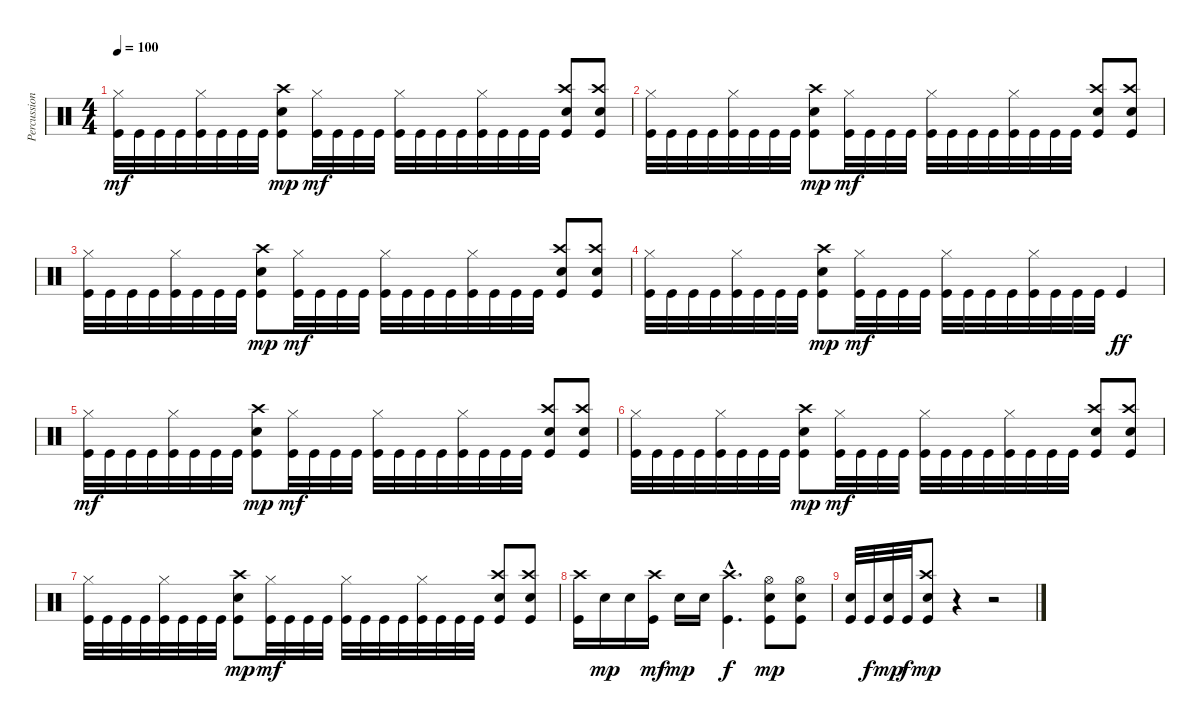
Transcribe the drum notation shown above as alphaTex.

\track ("Percussions" "Percussion") {instrument percussion}
\staff {score}
\articulation defaults
\ts (4 4)
\tempo 100
\clef neutral
\ks c
("Hi-Hat (closed)" "Kick (hit)").32{dy mf} "Kick (hit)".32 "Kick (hit)".32 "Kick (hit)".32 ("Hi-Hat (closed)" "Kick (hit)").32 "Kick (hit)".32 "Kick (hit)".32 "Kick (hit)".32 ("Crash high (hit)" "Snare (hit) 2" "Kick (hit)").8{dy mp} ("Hi-Hat (closed)" "Kick (hit)").32{dy mf} "Kick (hit)".32 "Kick (hit)".32 "Kick (hit)".32 ("Hi-Hat (closed)" "Kick (hit)").32 "Kick (hit)".32 "Kick (hit)".32 "Kick (hit)".32 ("Hi-Hat (closed)" "Kick (hit)").32 "Kick (hit)".32 "Kick (hit)".32 "Kick (hit)".32 ("Crash high (hit)" "Snare (hit) 2" "Kick (hit)").8 ("Crash high (hit)" "Snare (hit) 2" "Kick (hit)").8 |
("Hi-Hat (closed)" "Kick (hit)").32 "Kick (hit)".32 "Kick (hit)".32 "Kick (hit)".32 ("Hi-Hat (closed)" "Kick (hit)").32 "Kick (hit)".32 "Kick (hit)".32 "Kick (hit)".32 ("Crash high (hit)" "Snare (hit) 2" "Kick (hit)").8{dy mp} ("Hi-Hat (closed)" "Kick (hit)").32{dy mf} "Kick (hit)".32 "Kick (hit)".32 "Kick (hit)".32 ("Hi-Hat (closed)" "Kick (hit)").32 "Kick (hit)".32 "Kick (hit)".32 "Kick (hit)".32 ("Hi-Hat (closed)" "Kick (hit)").32 "Kick (hit)".32 "Kick (hit)".32 "Kick (hit)".32 ("Crash high (hit)" "Snare (hit) 2" "Kick (hit)").8 ("Crash high (hit)" "Snare (hit) 2" "Kick (hit)").8 |
("Hi-Hat (closed)" "Kick (hit)").32 "Kick (hit)".32 "Kick (hit)".32 "Kick (hit)".32 ("Hi-Hat (closed)" "Kick (hit)").32 "Kick (hit)".32 "Kick (hit)".32 "Kick (hit)".32 ("Crash high (hit)" "Snare (hit) 2" "Kick (hit)").8{dy mp} ("Hi-Hat (closed)" "Kick (hit)").32{dy mf} "Kick (hit)".32 "Kick (hit)".32 "Kick (hit)".32 ("Hi-Hat (closed)" "Kick (hit)").32 "Kick (hit)".32 "Kick (hit)".32 "Kick (hit)".32 ("Hi-Hat (closed)" "Kick (hit)").32 "Kick (hit)".32 "Kick (hit)".32 "Kick (hit)".32 ("Crash high (hit)" "Snare (hit) 2" "Kick (hit)").8 ("Crash high (hit)" "Snare (hit) 2" "Kick (hit)").8 |
("Hi-Hat (closed)" "Kick (hit)").32 "Kick (hit)".32 "Kick (hit)".32 "Kick (hit)".32 ("Hi-Hat (closed)" "Kick (hit)").32 "Kick (hit)".32 "Kick (hit)".32 "Kick (hit)".32 ("Crash high (hit)" "Snare (hit) 2" "Kick (hit)").8{dy mp} ("Hi-Hat (closed)" "Kick (hit)").32{dy mf} "Kick (hit)".32 "Kick (hit)".32 "Kick (hit)".32 ("Hi-Hat (closed)" "Kick (hit)").32 "Kick (hit)".32 "Kick (hit)".32 "Kick (hit)".32 ("Hi-Hat (closed)" "Kick (hit)").32 "Kick (hit)".32 "Kick (hit)".32 "Kick (hit)".32 "Kick (hit)".4{dy ff} |
("Hi-Hat (closed)" "Kick (hit)").32{dy mf} "Kick (hit)".32 "Kick (hit)".32 "Kick (hit)".32 ("Hi-Hat (closed)" "Kick (hit)").32 "Kick (hit)".32 "Kick (hit)".32 "Kick (hit)".32 ("Crash high (hit)" "Snare (hit) 2" "Kick (hit)").8{dy mp} ("Hi-Hat (closed)" "Kick (hit)").32{dy mf} "Kick (hit)".32 "Kick (hit)".32 "Kick (hit)".32 ("Hi-Hat (closed)" "Kick (hit)").32 "Kick (hit)".32 "Kick (hit)".32 "Kick (hit)".32 ("Hi-Hat (closed)" "Kick (hit)").32 "Kick (hit)".32 "Kick (hit)".32 "Kick (hit)".32 ("Crash high (hit)" "Snare (hit) 2" "Kick (hit)").8 ("Crash high (hit)" "Snare (hit) 2" "Kick (hit)").8 |
("Hi-Hat (closed)" "Kick (hit)").32 "Kick (hit)".32 "Kick (hit)".32 "Kick (hit)".32 ("Hi-Hat (closed)" "Kick (hit)").32 "Kick (hit)".32 "Kick (hit)".32 "Kick (hit)".32 ("Crash high (hit)" "Snare (hit) 2" "Kick (hit)").8{dy mp} ("Hi-Hat (closed)" "Kick (hit)").32{dy mf} "Kick (hit)".32 "Kick (hit)".32 "Kick (hit)".32 ("Hi-Hat (closed)" "Kick (hit)").32 "Kick (hit)".32 "Kick (hit)".32 "Kick (hit)".32 ("Hi-Hat (closed)" "Kick (hit)").32 "Kick (hit)".32 "Kick (hit)".32 "Kick (hit)".32 ("Crash high (hit)" "Snare (hit) 2" "Kick (hit)").8 ("Crash high (hit)" "Snare (hit) 2" "Kick (hit)").8 |
("Hi-Hat (closed)" "Kick (hit)").32 "Kick (hit)".32 "Kick (hit)".32 "Kick (hit)".32 ("Hi-Hat (closed)" "Kick (hit)").32 "Kick (hit)".32 "Kick (hit)".32 "Kick (hit)".32 ("Crash high (hit)" "Snare (hit) 2" "Kick (hit)").8{dy mp} ("Hi-Hat (closed)" "Kick (hit)").32{dy mf} "Kick (hit)".32 "Kick (hit)".32 "Kick (hit)".32 ("Hi-Hat (closed)" "Kick (hit)").32 "Kick (hit)".32 "Kick (hit)".32 "Kick (hit)".32 ("Hi-Hat (closed)" "Kick (hit)").32 "Kick (hit)".32 "Kick (hit)".32 "Kick (hit)".32 ("Crash high (hit)" "Snare (hit) 2" "Kick (hit)").8 ("Crash high (hit)" "Snare (hit) 2" "Kick (hit)").8 |
("Crash high (hit)" "Kick (hit)").16 "Snare (hit) 2".16{dy mp} "Snare (hit) 2".16 ("Crash high (hit)" "Kick (hit)").16{dy mf} "Snare (hit) 2".16{dy mp} "Snare (hit) 2".16 ("Crash high (hit)"{hac} "Kick (hit)"{hac}).4{d dy f} ("Hi-Hat (open)" "Snare (hit) 2" "Kick (hit)").8{dy mp} ("Hi-Hat (open)" "Snare (hit) 2" "Kick (hit)").8 |
("Snare (hit) 2" "Kick (hit)").32 "Kick (hit)".32{dy f} ("Snare (hit) 2" "Kick (hit)").32{dy mp} "Kick (hit)".32{dy f} ("Crash high (hit)" "Snare (hit) 2" "Kick (hit)").8{dy mp} r.4 r.2
